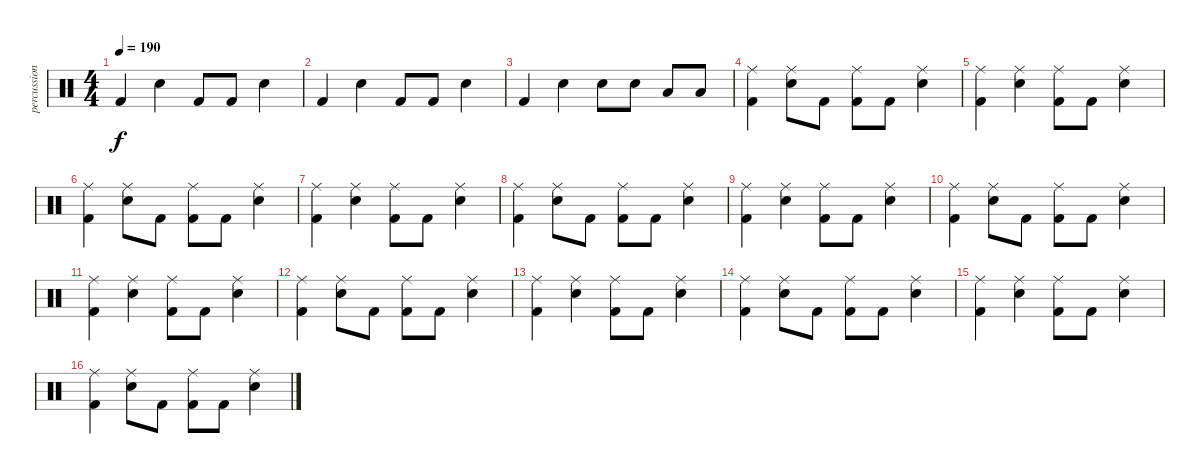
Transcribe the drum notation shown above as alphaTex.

\track ("percussion" "percussion") {instrument percussion}
\staff {score}
\articulation defaults
\ts (4 4)
\tempo 190
\clef neutral
\ks c "Kick (hit) 2".4{dy f} "Snare (hit) 2".4 "Kick (hit) 2".8 "Kick (hit) 2".8 "Snare (hit) 2".4
|
"Kick (hit) 2".4 "Snare (hit) 2".4 "Kick (hit) 2".8 "Kick (hit) 2".8 "Snare (hit) 2".4 |
"Kick (hit) 2".4 "Snare (hit) 2".4 "Snare (hit) 2".8 "Snare (hit) 2".8 "Low Tom (hit)".8 "Low Tom (hit)".8 |
("Ride (middle)" "Kick (hit) 2").4 ("Ride (middle)" "Snare (hit) 2").8 "Kick (hit) 2".8 ("Ride (middle)" "Kick (hit) 2").8 "Kick (hit) 2".8 ("Ride (middle)" "Snare (hit) 2").4 |
("Ride (middle)" "Kick (hit) 2").4 ("Ride (middle)" "Snare (hit) 2").4 ("Ride (middle)" "Kick (hit) 2").8 "Kick (hit) 2".8 ("Ride (middle)" "Snare (hit) 2").4 |
("Ride (middle)" "Kick (hit) 2").4 ("Ride (middle)" "Snare (hit) 2").8 "Kick (hit) 2".8 ("Ride (middle)" "Kick (hit) 2").8 "Kick (hit) 2".8 ("Ride (middle)" "Snare (hit) 2").4 |
("Ride (middle)" "Kick (hit) 2").4 ("Ride (middle)" "Snare (hit) 2").4 ("Ride (middle)" "Kick (hit) 2").8 "Kick (hit) 2".8 ("Ride (middle)" "Snare (hit) 2").4 |
("Ride (middle)" "Kick (hit) 2").4 ("Ride (middle)" "Snare (hit) 2").8 "Kick (hit) 2".8 ("Ride (middle)" "Kick (hit) 2").8 "Kick (hit) 2".8 ("Ride (middle)" "Snare (hit) 2").4 |
("Ride (middle)" "Kick (hit) 2").4 ("Ride (middle)" "Snare (hit) 2").4 ("Ride (middle)" "Kick (hit) 2").8 "Kick (hit) 2".8 ("Ride (middle)" "Snare (hit) 2").4 |
("Ride (middle)" "Kick (hit) 2").4 ("Ride (middle)" "Snare (hit) 2").8 "Kick (hit) 2".8 ("Ride (middle)" "Kick (hit) 2").8 "Kick (hit) 2".8 ("Ride (middle)" "Snare (hit) 2").4 |
("Ride (middle)" "Kick (hit) 2").4 ("Ride (middle)" "Snare (hit) 2").4 ("Ride (middle)" "Kick (hit) 2").8 "Kick (hit) 2".8 ("Ride (middle)" "Snare (hit) 2").4 |
("Ride (middle)" "Kick (hit) 2").4 ("Ride (middle)" "Snare (hit) 2").8 "Kick (hit) 2".8 ("Ride (middle)" "Kick (hit) 2").8 "Kick (hit) 2".8 ("Ride (middle)" "Snare (hit) 2").4 |
("Ride (middle)" "Kick (hit) 2").4 ("Ride (middle)" "Snare (hit) 2").4 ("Ride (middle)" "Kick (hit) 2").8 "Kick (hit) 2".8 ("Ride (middle)" "Snare (hit) 2").4 |
("Ride (middle)" "Kick (hit) 2").4 ("Ride (middle)" "Snare (hit) 2").8 "Kick (hit) 2".8 ("Ride (middle)" "Kick (hit) 2").8 "Kick (hit) 2".8 ("Ride (middle)" "Snare (hit) 2").4 |
("Ride (middle)" "Kick (hit) 2").4 ("Ride (middle)" "Snare (hit) 2").4 ("Ride (middle)" "Kick (hit) 2").8 "Kick (hit) 2".8 ("Ride (middle)" "Snare (hit) 2").4 |
("Ride (middle)" "Kick (hit) 2").4 ("Ride (middle)" "Snare (hit) 2").8 "Kick (hit) 2".8 ("Ride (middle)" "Kick (hit) 2").8 "Kick (hit) 2".8 ("Ride (middle)" "Snare (hit) 2").4
